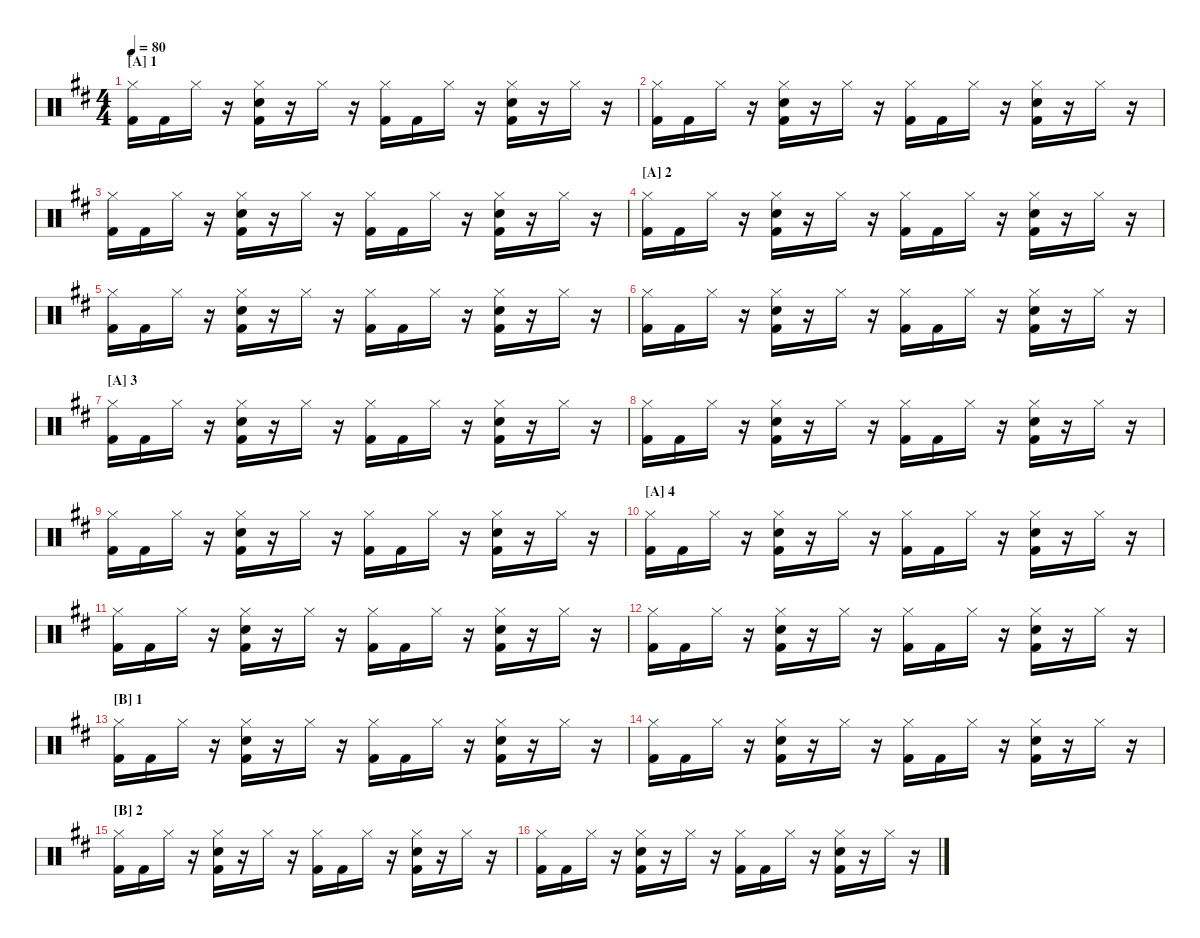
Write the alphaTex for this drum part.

\hideDynamics
\bracketExtendMode nobrackets
\singleTrackTrackNamePolicy hidden
\multiTrackTrackNamePolicy hidden
\otherSystemsTrackNameOrientation horizontal
\track ("Drumkit" "Drums") {instrument percussion}
\staff {score}
\articulation defaults
\ts (4 4)
\section ("A" "1")
\tempo 80
\clef neutral
\ks d
("Hi-Hat (closed)"{acc forcenatural} "Kick (hit) 2"{acc forcenatural}).16{dy f beam Down} "Kick (hit) 2"{acc forcenatural}.16{beam Down} "Hi-Hat (closed)"{acc forcenatural}.16{beam Down} r.16{beam Down} ("Hi-Hat (closed)"{acc forcenatural} "Snare (hit) 2"{acc forcenatural} "Kick (hit) 2"{acc forcenatural}).16{beam Down} r.16{beam Down} "Hi-Hat (closed)"{acc forcenatural}.16{beam Down} r.16{beam Down} ("Hi-Hat (closed)"{acc forcenatural} "Kick (hit) 2"{acc forcenatural}).16{beam Down} "Kick (hit) 2"{acc forcenatural}.16{beam Down} "Hi-Hat (closed)"{acc forcenatural}.16{beam Down} r.16{beam Down} ("Hi-Hat (closed)"{acc forcenatural} "Snare (hit) 2"{acc forcenatural} "Kick (hit) 2"{acc forcenatural}).16{beam Down} r.16{beam Down} "Hi-Hat (closed)"{acc forcenatural}.16{beam Down} r.16{beam Down} |
("Hi-Hat (closed)"{acc forcenatural} "Kick (hit) 2"{acc forcenatural}).16{beam Down} "Kick (hit) 2"{acc forcenatural}.16{beam Down} "Hi-Hat (closed)"{acc forcenatural}.16{beam Down} r.16{beam Down} ("Hi-Hat (closed)"{acc forcenatural} "Snare (hit) 2"{acc forcenatural} "Kick (hit) 2"{acc forcenatural}).16{beam Down} r.16{beam Down} "Hi-Hat (closed)"{acc forcenatural}.16{beam Down} r.16{beam Down} ("Hi-Hat (closed)"{acc forcenatural} "Kick (hit) 2"{acc forcenatural}).16{beam Down} "Kick (hit) 2"{acc forcenatural}.16{beam Down} "Hi-Hat (closed)"{acc forcenatural}.16{beam Down} r.16{beam Down} ("Hi-Hat (closed)"{acc forcenatural} "Snare (hit) 2"{acc forcenatural} "Kick (hit) 2"{acc forcenatural}).16{beam Down} r.16{beam Down} "Hi-Hat (closed)"{acc forcenatural}.16{beam Down} r.16{beam Down} |
("Hi-Hat (closed)"{acc forcenatural} "Kick (hit) 2"{acc forcenatural}).16{beam Down} "Kick (hit) 2"{acc forcenatural}.16{beam Down} "Hi-Hat (closed)"{acc forcenatural}.16{beam Down} r.16{beam Down} ("Hi-Hat (closed)"{acc forcenatural} "Snare (hit) 2"{acc forcenatural} "Kick (hit) 2"{acc forcenatural}).16{beam Down} r.16{beam Down} "Hi-Hat (closed)"{acc forcenatural}.16{beam Down} r.16{beam Down} ("Hi-Hat (closed)"{acc forcenatural} "Kick (hit) 2"{acc forcenatural}).16{beam Down} "Kick (hit) 2"{acc forcenatural}.16{beam Down} "Hi-Hat (closed)"{acc forcenatural}.16{beam Down} r.16{beam Down} ("Hi-Hat (closed)"{acc forcenatural} "Snare (hit) 2"{acc forcenatural} "Kick (hit) 2"{acc forcenatural}).16{beam Down} r.16{beam Down} "Hi-Hat (closed)"{acc forcenatural}.16{beam Down} r.16{beam Down} |
\section ("A" "2")
("Hi-Hat (closed)"{acc forcenatural} "Kick (hit) 2"{acc forcenatural}).16{beam Down} "Kick (hit) 2"{acc forcenatural}.16{beam Down} "Hi-Hat (closed)"{acc forcenatural}.16{beam Down} r.16{beam Down} ("Hi-Hat (closed)"{acc forcenatural} "Snare (hit) 2"{acc forcenatural} "Kick (hit) 2"{acc forcenatural}).16{beam Down} r.16{beam Down} "Hi-Hat (closed)"{acc forcenatural}.16{beam Down} r.16{beam Down} ("Hi-Hat (closed)"{acc forcenatural} "Kick (hit) 2"{acc forcenatural}).16{beam Down} "Kick (hit) 2"{acc forcenatural}.16{beam Down} "Hi-Hat (closed)"{acc forcenatural}.16{beam Down} r.16{beam Down} ("Hi-Hat (closed)"{acc forcenatural} "Snare (hit) 2"{acc forcenatural} "Kick (hit) 2"{acc forcenatural}).16{beam Down} r.16{beam Down} "Hi-Hat (closed)"{acc forcenatural}.16{beam Down} r.16{beam Down} |
("Hi-Hat (closed)"{acc forcenatural} "Kick (hit) 2"{acc forcenatural}).16{beam Down} "Kick (hit) 2"{acc forcenatural}.16{beam Down} "Hi-Hat (closed)"{acc forcenatural}.16{beam Down} r.16{beam Down} ("Hi-Hat (closed)"{acc forcenatural} "Snare (hit) 2"{acc forcenatural} "Kick (hit) 2"{acc forcenatural}).16{beam Down} r.16{beam Down} "Hi-Hat (closed)"{acc forcenatural}.16{beam Down} r.16{beam Down} ("Hi-Hat (closed)"{acc forcenatural} "Kick (hit) 2"{acc forcenatural}).16{beam Down} "Kick (hit) 2"{acc forcenatural}.16{beam Down} "Hi-Hat (closed)"{acc forcenatural}.16{beam Down} r.16{beam Down} ("Hi-Hat (closed)"{acc forcenatural} "Snare (hit) 2"{acc forcenatural} "Kick (hit) 2"{acc forcenatural}).16{beam Down} r.16{beam Down} "Hi-Hat (closed)"{acc forcenatural}.16{beam Down} r.16{beam Down} |
("Hi-Hat (closed)"{acc forcenatural} "Kick (hit) 2"{acc forcenatural}).16{beam Down} "Kick (hit) 2"{acc forcenatural}.16{beam Down} "Hi-Hat (closed)"{acc forcenatural}.16{beam Down} r.16{beam Down} ("Hi-Hat (closed)"{acc forcenatural} "Snare (hit) 2"{acc forcenatural} "Kick (hit) 2"{acc forcenatural}).16{beam Down} r.16{beam Down} "Hi-Hat (closed)"{acc forcenatural}.16{beam Down} r.16{beam Down} ("Hi-Hat (closed)"{acc forcenatural} "Kick (hit) 2"{acc forcenatural}).16{beam Down} "Kick (hit) 2"{acc forcenatural}.16{beam Down} "Hi-Hat (closed)"{acc forcenatural}.16{beam Down} r.16{beam Down} ("Hi-Hat (closed)"{acc forcenatural} "Snare (hit) 2"{acc forcenatural} "Kick (hit) 2"{acc forcenatural}).16{beam Down} r.16{beam Down} "Hi-Hat (closed)"{acc forcenatural}.16{beam Down} r.16{beam Down} |
\section ("A" "3")
("Hi-Hat (closed)"{acc forcenatural} "Kick (hit) 2"{acc forcenatural}).16{beam Down} "Kick (hit) 2"{acc forcenatural}.16{beam Down} "Hi-Hat (closed)"{acc forcenatural}.16{beam Down} r.16{beam Down} ("Hi-Hat (closed)"{acc forcenatural} "Snare (hit) 2"{acc forcenatural} "Kick (hit) 2"{acc forcenatural}).16{beam Down} r.16{beam Down} "Hi-Hat (closed)"{acc forcenatural}.16{beam Down} r.16{beam Down} ("Hi-Hat (closed)"{acc forcenatural} "Kick (hit) 2"{acc forcenatural}).16{beam Down} "Kick (hit) 2"{acc forcenatural}.16{beam Down} "Hi-Hat (closed)"{acc forcenatural}.16{beam Down} r.16{beam Down} ("Hi-Hat (closed)"{acc forcenatural} "Snare (hit) 2"{acc forcenatural} "Kick (hit) 2"{acc forcenatural}).16{beam Down} r.16{beam Down} "Hi-Hat (closed)"{acc forcenatural}.16{beam Down} r.16{beam Down} |
("Hi-Hat (closed)"{acc forcenatural} "Kick (hit) 2"{acc forcenatural}).16{beam Down} "Kick (hit) 2"{acc forcenatural}.16{beam Down} "Hi-Hat (closed)"{acc forcenatural}.16{beam Down} r.16{beam Down} ("Hi-Hat (closed)"{acc forcenatural} "Snare (hit) 2"{acc forcenatural} "Kick (hit) 2"{acc forcenatural}).16{beam Down} r.16{beam Down} "Hi-Hat (closed)"{acc forcenatural}.16{beam Down} r.16{beam Down} ("Hi-Hat (closed)"{acc forcenatural} "Kick (hit) 2"{acc forcenatural}).16{beam Down} "Kick (hit) 2"{acc forcenatural}.16{beam Down} "Hi-Hat (closed)"{acc forcenatural}.16{beam Down} r.16{beam Down} ("Hi-Hat (closed)"{acc forcenatural} "Snare (hit) 2"{acc forcenatural} "Kick (hit) 2"{acc forcenatural}).16{beam Down} r.16{beam Down} "Hi-Hat (closed)"{acc forcenatural}.16{beam Down} r.16{beam Down} |
("Hi-Hat (closed)"{acc forcenatural} "Kick (hit) 2"{acc forcenatural}).16{beam Down} "Kick (hit) 2"{acc forcenatural}.16{beam Down} "Hi-Hat (closed)"{acc forcenatural}.16{beam Down} r.16{beam Down} ("Hi-Hat (closed)"{acc forcenatural} "Snare (hit) 2"{acc forcenatural} "Kick (hit) 2"{acc forcenatural}).16{beam Down} r.16{beam Down} "Hi-Hat (closed)"{acc forcenatural}.16{beam Down} r.16{beam Down} ("Hi-Hat (closed)"{acc forcenatural} "Kick (hit) 2"{acc forcenatural}).16{beam Down} "Kick (hit) 2"{acc forcenatural}.16{beam Down} "Hi-Hat (closed)"{acc forcenatural}.16{beam Down} r.16{beam Down} ("Hi-Hat (closed)"{acc forcenatural} "Snare (hit) 2"{acc forcenatural} "Kick (hit) 2"{acc forcenatural}).16{beam Down} r.16{beam Down} "Hi-Hat (closed)"{acc forcenatural}.16{beam Down} r.16{beam Down} |
\section ("A" "4")
("Hi-Hat (closed)"{acc forcenatural} "Kick (hit) 2"{acc forcenatural}).16{beam Down} "Kick (hit) 2"{acc forcenatural}.16{beam Down} "Hi-Hat (closed)"{acc forcenatural}.16{beam Down} r.16{beam Down} ("Hi-Hat (closed)"{acc forcenatural} "Snare (hit) 2"{acc forcenatural} "Kick (hit) 2"{acc forcenatural}).16{beam Down} r.16{beam Down} "Hi-Hat (closed)"{acc forcenatural}.16{beam Down} r.16{beam Down} ("Hi-Hat (closed)"{acc forcenatural} "Kick (hit) 2"{acc forcenatural}).16{beam Down} "Kick (hit) 2"{acc forcenatural}.16{beam Down} "Hi-Hat (closed)"{acc forcenatural}.16{beam Down} r.16{beam Down} ("Hi-Hat (closed)"{acc forcenatural} "Snare (hit) 2"{acc forcenatural} "Kick (hit) 2"{acc forcenatural}).16{beam Down} r.16{beam Down} "Hi-Hat (closed)"{acc forcenatural}.16{beam Down} r.16{beam Down} |
("Hi-Hat (closed)"{acc forcenatural} "Kick (hit) 2"{acc forcenatural}).16{beam Down} "Kick (hit) 2"{acc forcenatural}.16{beam Down} "Hi-Hat (closed)"{acc forcenatural}.16{beam Down} r.16{beam Down} ("Hi-Hat (closed)"{acc forcenatural} "Snare (hit) 2"{acc forcenatural} "Kick (hit) 2"{acc forcenatural}).16{beam Down} r.16{beam Down} "Hi-Hat (closed)"{acc forcenatural}.16{beam Down} r.16{beam Down} ("Hi-Hat (closed)"{acc forcenatural} "Kick (hit) 2"{acc forcenatural}).16{beam Down} "Kick (hit) 2"{acc forcenatural}.16{beam Down} "Hi-Hat (closed)"{acc forcenatural}.16{beam Down} r.16{beam Down} ("Hi-Hat (closed)"{acc forcenatural} "Snare (hit) 2"{acc forcenatural} "Kick (hit) 2"{acc forcenatural}).16{beam Down} r.16{beam Down} "Hi-Hat (closed)"{acc forcenatural}.16{beam Down} r.16{beam Down} |
("Hi-Hat (closed)"{acc forcenatural} "Kick (hit) 2"{acc forcenatural}).16{beam Down} "Kick (hit) 2"{acc forcenatural}.16{beam Down} "Hi-Hat (closed)"{acc forcenatural}.16{beam Down} r.16{beam Down} ("Hi-Hat (closed)"{acc forcenatural} "Snare (hit) 2"{acc forcenatural} "Kick (hit) 2"{acc forcenatural}).16{beam Down} r.16{beam Down} "Hi-Hat (closed)"{acc forcenatural}.16{beam Down} r.16{beam Down} ("Hi-Hat (closed)"{acc forcenatural} "Kick (hit) 2"{acc forcenatural}).16{beam Down} "Kick (hit) 2"{acc forcenatural}.16{beam Down} "Hi-Hat (closed)"{acc forcenatural}.16{beam Down} r.16{beam Down} ("Hi-Hat (closed)"{acc forcenatural} "Snare (hit) 2"{acc forcenatural} "Kick (hit) 2"{acc forcenatural}).16{beam Down} r.16{beam Down} "Hi-Hat (closed)"{acc forcenatural}.16{beam Down} r.16{beam Down} |
\section ("B" "1")
("Hi-Hat (closed)"{acc forcenatural} "Kick (hit) 2"{acc forcenatural}).16{beam Down} "Kick (hit) 2"{acc forcenatural}.16{beam Down} "Hi-Hat (closed)"{acc forcenatural}.16{beam Down} r.16{beam Down} ("Hi-Hat (closed)"{acc forcenatural} "Snare (hit) 2"{acc forcenatural} "Kick (hit) 2"{acc forcenatural}).16{beam Down} r.16{beam Down} "Hi-Hat (closed)"{acc forcenatural}.16{beam Down} r.16{beam Down} ("Hi-Hat (closed)"{acc forcenatural} "Kick (hit) 2"{acc forcenatural}).16{beam Down} "Kick (hit) 2"{acc forcenatural}.16{beam Down} "Hi-Hat (closed)"{acc forcenatural}.16{beam Down} r.16{beam Down} ("Hi-Hat (closed)"{acc forcenatural} "Snare (hit) 2"{acc forcenatural} "Kick (hit) 2"{acc forcenatural}).16{beam Down} r.16{beam Down} "Hi-Hat (closed)"{acc forcenatural}.16{beam Down} r.16{beam Down} |
("Hi-Hat (closed)"{acc forcenatural} "Kick (hit) 2"{acc forcenatural}).16{beam Down} "Kick (hit) 2"{acc forcenatural}.16{beam Down} "Hi-Hat (closed)"{acc forcenatural}.16{beam Down} r.16{beam Down} ("Hi-Hat (closed)"{acc forcenatural} "Snare (hit) 2"{acc forcenatural} "Kick (hit) 2"{acc forcenatural}).16{beam Down} r.16{beam Down} "Hi-Hat (closed)"{acc forcenatural}.16{beam Down} r.16{beam Down} ("Hi-Hat (closed)"{acc forcenatural} "Kick (hit) 2"{acc forcenatural}).16{beam Down} "Kick (hit) 2"{acc forcenatural}.16{beam Down} "Hi-Hat (closed)"{acc forcenatural}.16{beam Down} r.16{beam Down} ("Hi-Hat (closed)"{acc forcenatural} "Snare (hit) 2"{acc forcenatural} "Kick (hit) 2"{acc forcenatural}).16{beam Down} r.16{beam Down} "Hi-Hat (closed)"{acc forcenatural}.16{beam Down} r.16{beam Down} |
\section ("B" "2")
("Hi-Hat (closed)"{acc forcenatural} "Kick (hit) 2"{acc forcenatural}).16{beam Down} "Kick (hit) 2"{acc forcenatural}.16{beam Down} "Hi-Hat (closed)"{acc forcenatural}.16{beam Down} r.16{beam Down} ("Hi-Hat (closed)"{acc forcenatural} "Snare (hit) 2"{acc forcenatural} "Kick (hit) 2"{acc forcenatural}).16{beam Down} r.16{beam Down} "Hi-Hat (closed)"{acc forcenatural}.16{beam Down} r.16{beam Down} ("Hi-Hat (closed)"{acc forcenatural} "Kick (hit) 2"{acc forcenatural}).16{beam Down} "Kick (hit) 2"{acc forcenatural}.16{beam Down} "Hi-Hat (closed)"{acc forcenatural}.16{beam Down} r.16{beam Down} ("Hi-Hat (closed)"{acc forcenatural} "Snare (hit) 2"{acc forcenatural} "Kick (hit) 2"{acc forcenatural}).16{beam Down} r.16{beam Down} "Hi-Hat (closed)"{acc forcenatural}.16{beam Down} r.16{beam Down} |
("Hi-Hat (closed)"{acc forcenatural} "Kick (hit) 2"{acc forcenatural}).16{beam Down} "Kick (hit) 2"{acc forcenatural}.16{beam Down} "Hi-Hat (closed)"{acc forcenatural}.16{beam Down} r.16{beam Down} ("Hi-Hat (closed)"{acc forcenatural} "Snare (hit) 2"{acc forcenatural} "Kick (hit) 2"{acc forcenatural}).16{beam Down} r.16{beam Down} "Hi-Hat (closed)"{acc forcenatural}.16{beam Down} r.16{beam Down} ("Hi-Hat (closed)"{acc forcenatural} "Kick (hit) 2"{acc forcenatural}).16{beam Down} "Kick (hit) 2"{acc forcenatural}.16{beam Down} "Hi-Hat (closed)"{acc forcenatural}.16{beam Down} r.16{beam Down} ("Hi-Hat (closed)"{acc forcenatural} "Snare (hit) 2"{acc forcenatural} "Kick (hit) 2"{acc forcenatural}).16{beam Down} r.16{beam Down} "Hi-Hat (closed)"{acc forcenatural}.16{beam Down} r.16{beam Down}
